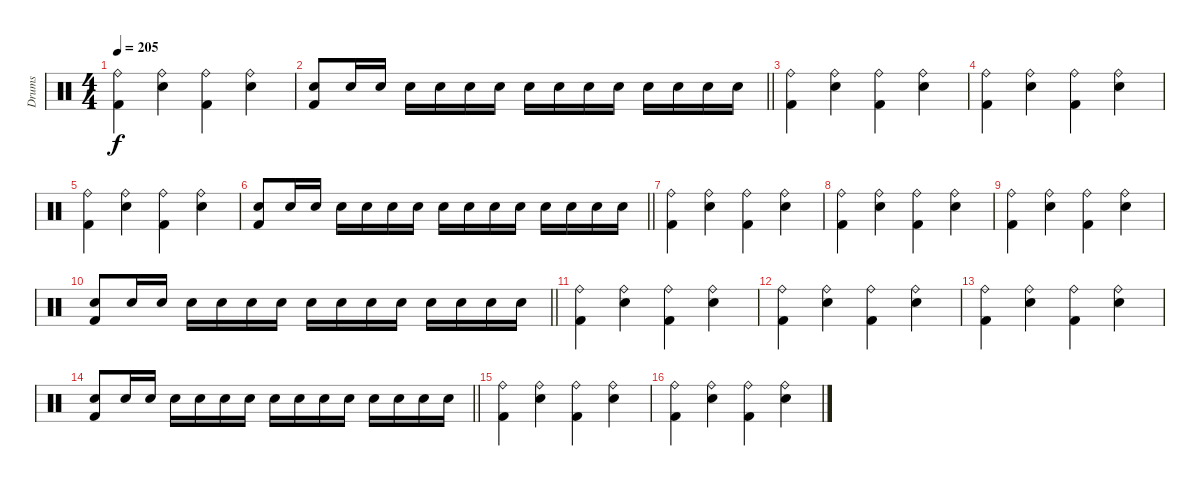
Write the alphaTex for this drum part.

\track ("Drums" "Drums") {instrument percussion}
\staff {score}
\articulation defaults
\ts (4 4)
\tempo 205
\clef neutral
\ks c
("Ride (bell)" "Kick (hit) 2").4{dy f} ("Ride (bell)" "Snare (hit) 2").4 ("Ride (bell)" "Kick (hit) 2").4 ("Ride (bell)" "Snare (hit) 2").4 |
\barLineRight lightlight
("Snare (hit) 2" "Kick (hit) 2").8 "Snare (hit) 2".16 "Snare (hit) 2".16 "Snare (hit) 2".16 "Snare (hit) 2".16 "Snare (hit) 2".16 "Snare (hit) 2".16 "Snare (hit) 2".16 "Snare (hit) 2".16 "Snare (hit) 2".16 "Snare (hit) 2".16 "Snare (hit) 2".16 "Snare (hit) 2".16 "Snare (hit) 2".16 "Snare (hit) 2".16 |
("Ride (bell)" "Kick (hit) 2").4 ("Ride (bell)" "Snare (hit) 2").4 ("Ride (bell)" "Kick (hit) 2").4 ("Ride (bell)" "Snare (hit) 2").4 |
("Ride (bell)" "Kick (hit) 2").4 ("Ride (bell)" "Snare (hit) 2").4 ("Ride (bell)" "Kick (hit) 2").4 ("Ride (bell)" "Snare (hit) 2").4 |
("Ride (bell)" "Kick (hit) 2").4 ("Ride (bell)" "Snare (hit) 2").4 ("Ride (bell)" "Kick (hit) 2").4 ("Ride (bell)" "Snare (hit) 2").4 |
\barLineRight lightlight
("Snare (hit) 2" "Kick (hit) 2").8 "Snare (hit) 2".16 "Snare (hit) 2".16 "Snare (hit) 2".16 "Snare (hit) 2".16 "Snare (hit) 2".16 "Snare (hit) 2".16 "Snare (hit) 2".16 "Snare (hit) 2".16 "Snare (hit) 2".16 "Snare (hit) 2".16 "Snare (hit) 2".16 "Snare (hit) 2".16 "Snare (hit) 2".16 "Snare (hit) 2".16 |
("Ride (bell)" "Kick (hit) 2").4 ("Ride (bell)" "Snare (hit) 2").4 ("Ride (bell)" "Kick (hit) 2").4 ("Ride (bell)" "Snare (hit) 2").4 |
("Ride (bell)" "Kick (hit) 2").4 ("Ride (bell)" "Snare (hit) 2").4 ("Ride (bell)" "Kick (hit) 2").4 ("Ride (bell)" "Snare (hit) 2").4 |
("Ride (bell)" "Kick (hit) 2").4 ("Ride (bell)" "Snare (hit) 2").4 ("Ride (bell)" "Kick (hit) 2").4 ("Ride (bell)" "Snare (hit) 2").4 |
\barLineRight lightlight
("Snare (hit) 2" "Kick (hit) 2").8 "Snare (hit) 2".16 "Snare (hit) 2".16 "Snare (hit) 2".16 "Snare (hit) 2".16 "Snare (hit) 2".16 "Snare (hit) 2".16 "Snare (hit) 2".16 "Snare (hit) 2".16 "Snare (hit) 2".16 "Snare (hit) 2".16 "Snare (hit) 2".16 "Snare (hit) 2".16 "Snare (hit) 2".16 "Snare (hit) 2".16 |
("Ride (bell)" "Kick (hit) 2").4 ("Ride (bell)" "Snare (hit) 2").4 ("Ride (bell)" "Kick (hit) 2").4 ("Ride (bell)" "Snare (hit) 2").4 |
("Ride (bell)" "Kick (hit) 2").4 ("Ride (bell)" "Snare (hit) 2").4 ("Ride (bell)" "Kick (hit) 2").4 ("Ride (bell)" "Snare (hit) 2").4 |
("Ride (bell)" "Kick (hit) 2").4 ("Ride (bell)" "Snare (hit) 2").4 ("Ride (bell)" "Kick (hit) 2").4 ("Ride (bell)" "Snare (hit) 2").4 |
\barLineRight lightlight
("Snare (hit) 2" "Kick (hit) 2").8 "Snare (hit) 2".16 "Snare (hit) 2".16 "Snare (hit) 2".16 "Snare (hit) 2".16 "Snare (hit) 2".16 "Snare (hit) 2".16 "Snare (hit) 2".16 "Snare (hit) 2".16 "Snare (hit) 2".16 "Snare (hit) 2".16 "Snare (hit) 2".16 "Snare (hit) 2".16 "Snare (hit) 2".16 "Snare (hit) 2".16 |
("Ride (bell)" "Kick (hit) 2").4 ("Ride (bell)" "Snare (hit) 2").4 ("Ride (bell)" "Kick (hit) 2").4 ("Ride (bell)" "Snare (hit) 2").4 |
("Ride (bell)" "Kick (hit) 2").4 ("Ride (bell)" "Snare (hit) 2").4 ("Ride (bell)" "Kick (hit) 2").4 ("Ride (bell)" "Snare (hit) 2").4
